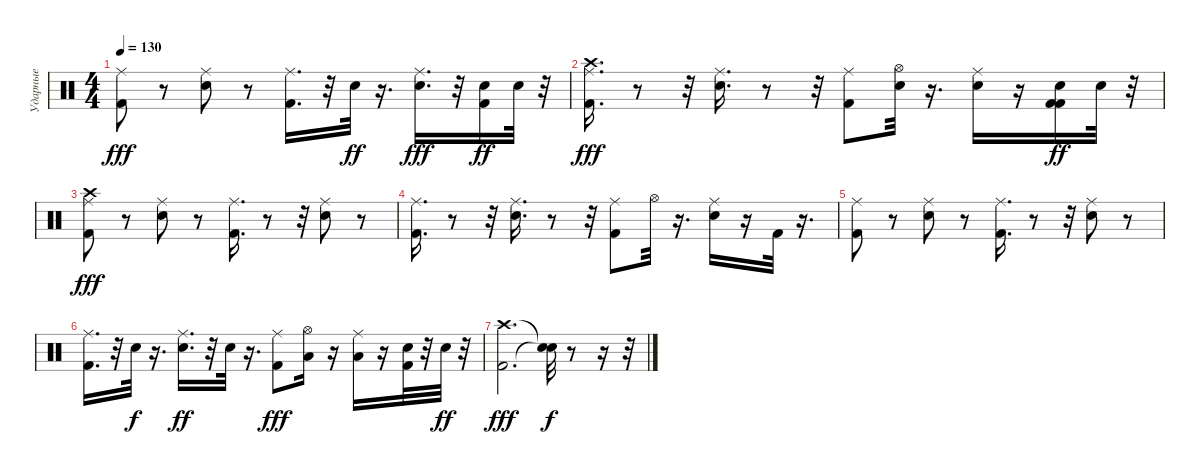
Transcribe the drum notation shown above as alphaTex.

\track ("Ударные" "Ударные") {instrument percussion}
\staff {score}
\articulation defaults
\ts (4 4)
\tempo 130
\clef neutral
\ks c
("Kick (hit) 2" "Ride (middle)").8{dy fff} r.8 ("Electric Snare (hit)" "Ride (middle)").8 r.8 ("Kick (hit) 2" "Ride (middle)").16{d} r.32 "Electric Snare (hit)".32{dy ff} r.16{d} ("Electric Snare (hit)" "Ride (middle)").16{d dy fff} r.32 ("Kick (hit) 2" "Electric Snare (hit)").16{dy ff} "Electric Snare (hit)".32 r.32 |
("Crash high (hit)" "Ride (middle)" "Kick (hit) 2").16{d dy fff} r.8 r.32 ("Electric Snare (hit)" "Ride (middle)").16{d} r.8 r.32 ("Kick (hit) 2" "Ride (middle)").8 ("Electric Snare (hit)" "Hi-Hat (open)").32 r.16{d} ("Electric Snare (hit)" "Ride (middle)").16 r.16 ("Kick (hit) 2" "Kick (hit) 2" "Electric Snare (hit)").16{dy ff} "Electric Snare (hit)".32 r.32 |
("Kick (hit) 2" "Crash high (hit)" "Ride (middle)").8{dy fff} r.8 ("Electric Snare (hit)" "Ride (middle)").8 r.8 ("Kick (hit) 2" "Ride (middle)").16{d} r.8 r.32 ("Electric Snare (hit)" "Ride (middle)").8 r.8 |
("Ride (middle)" "Kick (hit) 2").16{d} r.8 r.32 ("Electric Snare (hit)" "Ride (middle)").16{d} r.8 r.32 ("Kick (hit) 2" "Ride (middle)").8 "Hi-Hat (open)".32 r.16{d} ("Electric Snare (hit)" "Ride (middle)").16 r.16 "Kick (hit) 2".32 r.16{d} |
("Kick (hit) 2" "Ride (middle)").8 r.8 ("Electric Snare (hit)" "Ride (middle)").8 r.8 ("Kick (hit) 2" "Ride (middle)").16{d} r.8 r.32 ("Electric Snare (hit)" "Ride (middle)").8 r.8 |
("Ride (middle)" "Kick (hit) 2").16{d} r.32 "Electric Snare (hit)".32{dy f} r.16{d} ("Ride (middle)" "Electric Snare (hit)").16{d dy ff} r.32 "Electric Snare (hit)".32 r.16{d} ("Kick (hit) 2" "Ride (middle)").8{dy fff} ("Low Tom (hit)" "Hi-Hat (open)").16 r.16 ("Low Tom (hit)" "Ride (middle)").16 r.16 ("Kick (hit) 2" "Snare (hit) 2").32 r.32 "Snare (hit) 2".32{dy ff} r.32 |
("Kick (hit) 2" "Crash high (hit)").2{d dy fff} ("Snare (hit)"{t} "Snare (hit)"{t}).32{dy f} r.8 r.16 r.32
